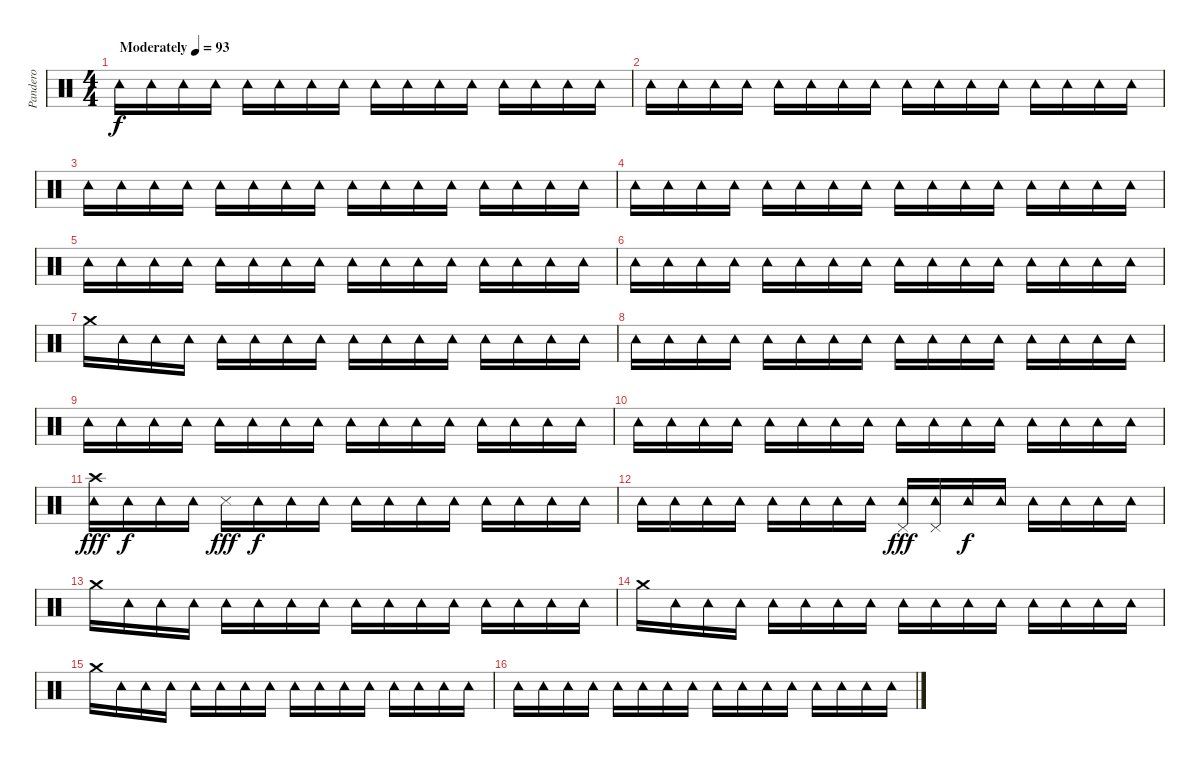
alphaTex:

\track ("Pandero" "Pandero") {instrument percussion bank 1}
\staff {score}
\articulation defaults
\ts (4 4)
\tempo (93 "Moderately")
\clef neutral
\ks c "Tambourine (hit)".16{dy f} "Tambourine (hit)".16 "Tambourine (hit)".16 "Tambourine (hit)".16 "Tambourine (hit)".16 "Tambourine (hit)".16 "Tambourine (hit)".16 "Tambourine (hit)".16 "Tambourine (hit)".16 "Tambourine (hit)".16 "Tambourine (hit)".16 "Tambourine (hit)".16 "Tambourine (hit)".16 "Tambourine (hit)".16 "Tambourine (hit)".16 "Tambourine (hit)".16
|
"Tambourine (hit)".16 "Tambourine (hit)".16 "Tambourine (hit)".16 "Tambourine (hit)".16 "Tambourine (hit)".16 "Tambourine (hit)".16 "Tambourine (hit)".16 "Tambourine (hit)".16 "Tambourine (hit)".16 "Tambourine (hit)".16 "Tambourine (hit)".16 "Tambourine (hit)".16 "Tambourine (hit)".16 "Tambourine (hit)".16 "Tambourine (hit)".16 "Tambourine (hit)".16 |
"Tambourine (hit)".16 "Tambourine (hit)".16 "Tambourine (hit)".16 "Tambourine (hit)".16 "Tambourine (hit)".16 "Tambourine (hit)".16 "Tambourine (hit)".16 "Tambourine (hit)".16 "Tambourine (hit)".16 "Tambourine (hit)".16 "Tambourine (hit)".16 "Tambourine (hit)".16 "Tambourine (hit)".16 "Tambourine (hit)".16 "Tambourine (hit)".16 "Tambourine (hit)".16 |
"Tambourine (hit)".16 "Tambourine (hit)".16 "Tambourine (hit)".16 "Tambourine (hit)".16 "Tambourine (hit)".16 "Tambourine (hit)".16 "Tambourine (hit)".16 "Tambourine (hit)".16 "Tambourine (hit)".16 "Tambourine (hit)".16 "Tambourine (hit)".16 "Tambourine (hit)".16 "Tambourine (hit)".16 "Tambourine (hit)".16 "Tambourine (hit)".16 "Tambourine (hit)".16 |
"Tambourine (hit)".16 "Tambourine (hit)".16 "Tambourine (hit)".16 "Tambourine (hit)".16 "Tambourine (hit)".16 "Tambourine (hit)".16 "Tambourine (hit)".16 "Tambourine (hit)".16 "Tambourine (hit)".16 "Tambourine (hit)".16 "Tambourine (hit)".16 "Tambourine (hit)".16 "Tambourine (hit)".16 "Tambourine (hit)".16 "Tambourine (hit)".16 "Tambourine (hit)".16 |
"Tambourine (hit)".16 "Tambourine (hit)".16 "Tambourine (hit)".16 "Tambourine (hit)".16 "Tambourine (hit)".16 "Tambourine (hit)".16 "Tambourine (hit)".16 "Tambourine (hit)".16 "Tambourine (hit)".16 "Tambourine (hit)".16 "Tambourine (hit)".16 "Tambourine (hit)".16 "Tambourine (hit)".16 "Tambourine (hit)".16 "Tambourine (hit)".16 "Tambourine (hit)".16 |
"Crash medium (hit)".16 "Tambourine (hit)".16 "Tambourine (hit)".16 "Tambourine (hit)".16 "Tambourine (hit)".16 "Tambourine (hit)".16 "Tambourine (hit)".16 "Tambourine (hit)".16 "Tambourine (hit)".16 "Tambourine (hit)".16 "Tambourine (hit)".16 "Tambourine (hit)".16 "Tambourine (hit)".16 "Tambourine (hit)".16 "Tambourine (hit)".16 "Tambourine (hit)".16 |
"Tambourine (hit)".16 "Tambourine (hit)".16 "Tambourine (hit)".16 "Tambourine (hit)".16 "Tambourine (hit)".16 "Tambourine (hit)".16 "Tambourine (hit)".16 "Tambourine (hit)".16 "Tambourine (hit)".16 "Tambourine (hit)".16 "Tambourine (hit)".16 "Tambourine (hit)".16 "Tambourine (hit)".16 "Tambourine (hit)".16 "Tambourine (hit)".16 "Tambourine (hit)".16 |
"Tambourine (hit)".16 "Tambourine (hit)".16 "Tambourine (hit)".16 "Tambourine (hit)".16 "Tambourine (hit)".16 "Tambourine (hit)".16 "Tambourine (hit)".16 "Tambourine (hit)".16 "Tambourine (hit)".16 "Tambourine (hit)".16 "Tambourine (hit)".16 "Tambourine (hit)".16 "Tambourine (hit)".16 "Tambourine (hit)".16 "Tambourine (hit)".16 "Tambourine (hit)".16 |
"Tambourine (hit)".16 "Tambourine (hit)".16 "Tambourine (hit)".16 "Tambourine (hit)".16 "Tambourine (hit)".16 "Tambourine (hit)".16 "Tambourine (hit)".16 "Tambourine (hit)".16 "Tambourine (hit)".16 "Tambourine (hit)".16 "Tambourine (hit)".16 "Tambourine (hit)".16 "Tambourine (hit)".16 "Tambourine (hit)".16 "Tambourine (hit)".16 "Tambourine (hit)".16 |
("Tambourine (hit)" "Crash high (hit)").16{dy fff} "Tambourine (hit)".16{dy f} "Tambourine (hit)".16 "Tambourine (hit)".16 "Snare (side stick) 3".16{dy fff} "Tambourine (hit)".16{dy f} "Tambourine (hit)".16 "Tambourine (hit)".16 "Tambourine (hit)".16 "Tambourine (hit)".16 "Tambourine (hit)".16 "Tambourine (hit)".16 "Tambourine (hit)".16 "Tambourine (hit)".16 "Tambourine (hit)".16 "Tambourine (hit)".16 |
"Tambourine (hit)".16 "Tambourine (hit)".16 "Tambourine (hit)".16 "Tambourine (hit)".16 "Tambourine (hit)".16 "Tambourine (hit)".16 "Tambourine (hit)".16 "Tambourine (hit)".16 ("Tambourine (hit)" "Pedal Hi-Hat (hit)").16{dy fff} ("Tambourine (hit)" "Pedal Hi-Hat (hit)").16 "Tambourine (hit)".16{dy f} "Tambourine (hit)".16 "Tambourine (hit)".16 "Tambourine (hit)".16 "Tambourine (hit)".16 "Tambourine (hit)".16 |
"Crash medium (hit)".16 "Tambourine (hit)".16 "Tambourine (hit)".16 "Tambourine (hit)".16 "Tambourine (hit)".16 "Tambourine (hit)".16 "Tambourine (hit)".16 "Tambourine (hit)".16 "Tambourine (hit)".16 "Tambourine (hit)".16 "Tambourine (hit)".16 "Tambourine (hit)".16 "Tambourine (hit)".16 "Tambourine (hit)".16 "Tambourine (hit)".16 "Tambourine (hit)".16 |
"Crash medium (hit)".16 "Tambourine (hit)".16 "Tambourine (hit)".16 "Tambourine (hit)".16 "Tambourine (hit)".16 "Tambourine (hit)".16 "Tambourine (hit)".16 "Tambourine (hit)".16 "Tambourine (hit)".16 "Tambourine (hit)".16 "Tambourine (hit)".16 "Tambourine (hit)".16 "Tambourine (hit)".16 "Tambourine (hit)".16 "Tambourine (hit)".16 "Tambourine (hit)".16 |
"Crash medium (hit)".16 "Tambourine (hit)".16 "Tambourine (hit)".16 "Tambourine (hit)".16 "Tambourine (hit)".16 "Tambourine (hit)".16 "Tambourine (hit)".16 "Tambourine (hit)".16 "Tambourine (hit)".16 "Tambourine (hit)".16 "Tambourine (hit)".16 "Tambourine (hit)".16 "Tambourine (hit)".16 "Tambourine (hit)".16 "Tambourine (hit)".16 "Tambourine (hit)".16 |
"Tambourine (hit)".16 "Tambourine (hit)".16 "Tambourine (hit)".16 "Tambourine (hit)".16 "Tambourine (hit)".16 "Tambourine (hit)".16 "Tambourine (hit)".16 "Tambourine (hit)".16 "Tambourine (hit)".16 "Tambourine (hit)".16 "Tambourine (hit)".16 "Tambourine (hit)".16 "Tambourine (hit)".16 "Tambourine (hit)".16 "Tambourine (hit)".16 "Tambourine (hit)".16
